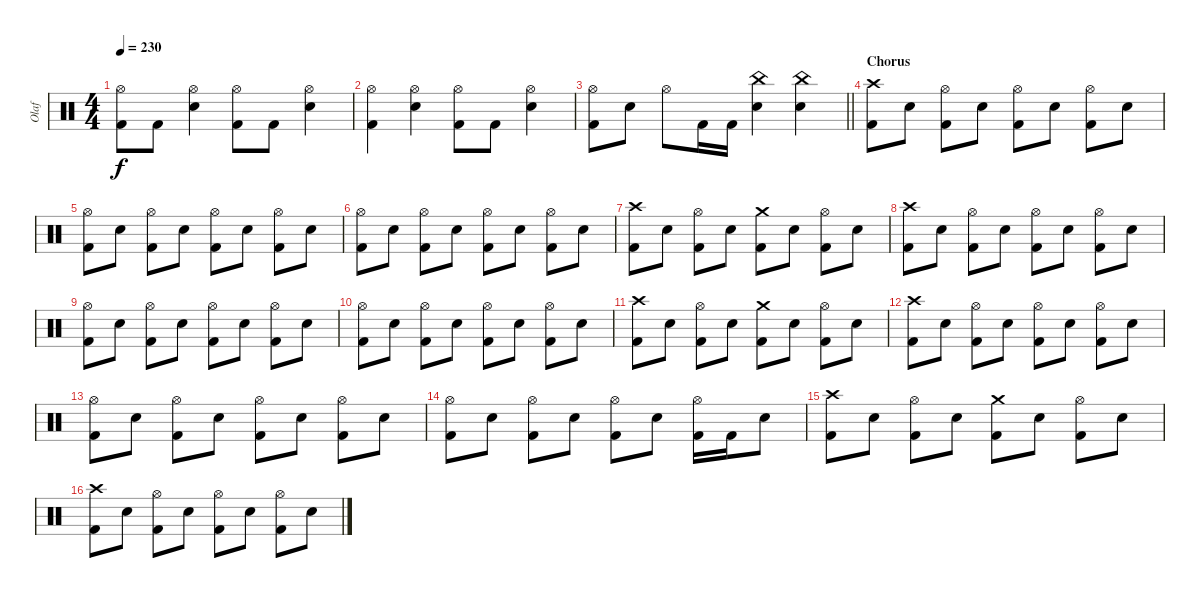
\track ("Olaf" "Olaf") {instrument percussion}
\staff {score}
\articulation defaults
\ts (4 4)
\tempo 230
\clef neutral
\ks c
("Hi-Hat (open)" "Kick (hit) 2").8{dy f} "Kick (hit) 2".8 ("Hi-Hat (open)" "Electric Snare (hit)").4 ("Hi-Hat (open)" "Kick (hit) 2").8 "Kick (hit) 2".8 ("Hi-Hat (open)" "Electric Snare (hit)").4 |
("Hi-Hat (open)" "Kick (hit) 2").4 ("Hi-Hat (open)" "Electric Snare (hit)").4 ("Hi-Hat (open)" "Kick (hit) 2").8 "Kick (hit) 2".8 ("Hi-Hat (open)" "Electric Snare (hit)").4 |
\barLineRight lightlight
("Hi-Hat (open)" "Kick (hit) 2").8 "Electric Snare (hit)".8 "Hi-Hat (open)".8 "Kick (hit) 2".16 "Kick (hit) 2".16 ("China (hit)" "Electric Snare (hit)").4 ("China (hit)" "Electric Snare (hit)").4 |
\section ("" "Chorus")
("Crash high (hit)" "Kick (hit) 2").8 "Electric Snare (hit)".8 ("Hi-Hat (open)" "Kick (hit) 2").8 "Electric Snare (hit)".8 ("Hi-Hat (open)" "Kick (hit) 2").8 "Electric Snare (hit)".8 ("Hi-Hat (open)" "Kick (hit) 2").8 "Electric Snare (hit)".8 |
("Hi-Hat (open)" "Kick (hit) 2").8 "Electric Snare (hit)".8 ("Hi-Hat (open)" "Kick (hit) 2").8 "Electric Snare (hit)".8 ("Hi-Hat (open)" "Kick (hit) 2").8 "Electric Snare (hit)".8 ("Hi-Hat (open)" "Kick (hit) 2").8 "Electric Snare (hit)".8 |
("Hi-Hat (open)" "Kick (hit) 2").8 "Electric Snare (hit)".8 ("Hi-Hat (open)" "Kick (hit) 2").8 "Electric Snare (hit)".8 ("Hi-Hat (open)" "Kick (hit) 2").8 "Electric Snare (hit)".8 ("Hi-Hat (open)" "Kick (hit) 2").8 "Electric Snare (hit)".8 |
("Crash high (hit)" "Kick (hit) 2").8 "Electric Snare (hit)".8 ("Hi-Hat (open)" "Kick (hit) 2").8 "Electric Snare (hit)".8 ("Crash medium (hit)" "Kick (hit) 2").8 "Electric Snare (hit)".8 ("Hi-Hat (open)" "Kick (hit) 2").8 "Electric Snare (hit)".8 |
("Crash high (hit)" "Kick (hit) 2").8 "Electric Snare (hit)".8 ("Hi-Hat (open)" "Kick (hit) 2").8 "Electric Snare (hit)".8 ("Hi-Hat (open)" "Kick (hit) 2").8 "Electric Snare (hit)".8 ("Hi-Hat (open)" "Kick (hit) 2").8 "Electric Snare (hit)".8 |
("Hi-Hat (open)" "Kick (hit) 2").8 "Electric Snare (hit)".8 ("Hi-Hat (open)" "Kick (hit) 2").8 "Electric Snare (hit)".8 ("Hi-Hat (open)" "Kick (hit) 2").8 "Electric Snare (hit)".8 ("Hi-Hat (open)" "Kick (hit) 2").8 "Electric Snare (hit)".8 |
("Hi-Hat (open)" "Kick (hit) 2").8 "Electric Snare (hit)".8 ("Hi-Hat (open)" "Kick (hit) 2").8 "Electric Snare (hit)".8 ("Hi-Hat (open)" "Kick (hit) 2").8 "Electric Snare (hit)".8 ("Hi-Hat (open)" "Kick (hit) 2").8 "Electric Snare (hit)".8 |
("Crash high (hit)" "Kick (hit) 2").8 "Electric Snare (hit)".8 ("Hi-Hat (open)" "Kick (hit) 2").8 "Electric Snare (hit)".8 ("Crash medium (hit)" "Kick (hit) 2").8 "Electric Snare (hit)".8 ("Hi-Hat (open)" "Kick (hit) 2").8 "Electric Snare (hit)".8 |
("Crash high (hit)" "Kick (hit) 2").8 "Electric Snare (hit)".8 ("Hi-Hat (open)" "Kick (hit) 2").8 "Electric Snare (hit)".8 ("Hi-Hat (open)" "Kick (hit) 2").8 "Electric Snare (hit)".8 ("Hi-Hat (open)" "Kick (hit) 2").8 "Electric Snare (hit)".8 |
("Hi-Hat (open)" "Kick (hit) 2").8 "Electric Snare (hit)".8 ("Hi-Hat (open)" "Kick (hit) 2").8 "Electric Snare (hit)".8 ("Hi-Hat (open)" "Kick (hit) 2").8 "Electric Snare (hit)".8 ("Hi-Hat (open)" "Kick (hit) 2").8 "Electric Snare (hit)".8 |
("Hi-Hat (open)" "Kick (hit) 2").8 "Electric Snare (hit)".8 ("Hi-Hat (open)" "Kick (hit) 2").8 "Electric Snare (hit)".8 ("Hi-Hat (open)" "Kick (hit) 2").8 "Electric Snare (hit)".8 ("Hi-Hat (open)" "Kick (hit) 2").16 "Kick (hit) 2".16 "Electric Snare (hit)".8 |
("Crash high (hit)" "Kick (hit) 2").8 "Electric Snare (hit)".8 ("Hi-Hat (open)" "Kick (hit) 2").8 "Electric Snare (hit)".8 ("Crash medium (hit)" "Kick (hit) 2").8 "Electric Snare (hit)".8 ("Hi-Hat (open)" "Kick (hit) 2").8 "Electric Snare (hit)".8 |
("Crash high (hit)" "Kick (hit) 2").8 "Electric Snare (hit)".8 ("Hi-Hat (open)" "Kick (hit) 2").8 "Electric Snare (hit)".8 ("Hi-Hat (open)" "Kick (hit) 2").8 "Electric Snare (hit)".8 ("Hi-Hat (open)" "Kick (hit) 2").8 "Electric Snare (hit)".8
